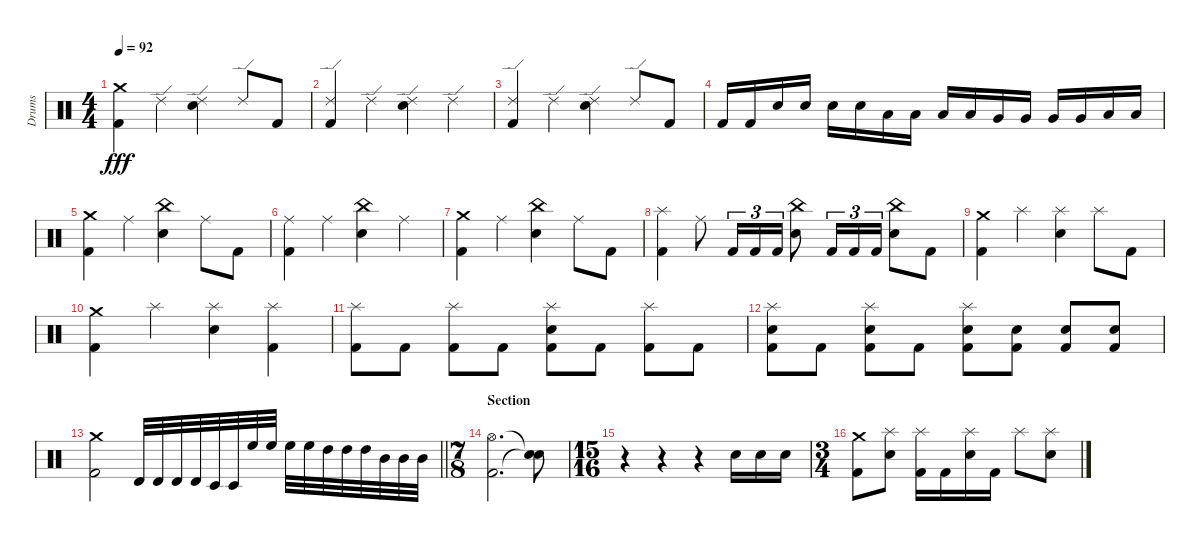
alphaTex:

\track ("Drums" "Drums") {instrument percussion}
\staff {score}
\articulation defaults
\ts (4 4)
\tempo 92
\clef neutral
\ks c
("Crash medium (hit)" "Kick (hit) 2").4{dy fff} "Ride (edge) 2".4 ("Ride (edge) 2" "Snare (hit) 2").4 "Ride (edge) 2".8 "Kick (hit) 2".8 |
("Ride (edge) 2" "Kick (hit) 2").4 "Ride (edge) 2".4 ("Ride (edge) 2" "Snare (hit) 2").4 "Ride (edge) 2".4 |
("Ride (edge) 2" "Kick (hit) 2").4 "Ride (edge) 2".4 ("Ride (edge) 2" "Snare (hit) 2").4 "Ride (edge) 2".8 "Kick (hit) 2".8 |
"Kick (hit) 2".16 "Kick (hit) 2".16 "Snare (hit) 2".16 "Snare (hit) 2".16 "Snare (hit) 2".16 "Snare (hit) 2".16 "Low Tom (hit)".16 "Low Tom (hit)".16 "Low Tom (hit)".16 "Low Tom (hit)".16 "Very Low Tom (hit)".16 "Very Low Tom (hit)".16 "Very Low Tom (hit)".16 "Very Low Tom (hit)".16 "Low Floor Tom (hit)".16 "Low Floor Tom (hit)".16 |
("Crash medium (hit)" "Kick (hit) 2").4 "Ride (middle)".4 ("China (hit)" "Snare (hit) 2").4 "Ride (middle)".8 "Kick (hit) 2".8 |
("Ride (middle)" "Kick (hit) 2").4 "Ride (middle)".4 ("China (hit)" "Snare (hit) 2").4 "Ride (middle)".4 |
("Crash medium (hit)" "Kick (hit) 2").4 "Ride (middle)".4 ("China (hit)" "Snare (hit) 2").4 "Ride (middle)".8 "Kick (hit) 2".8 |
("Splash (hit)" "Kick (hit) 2").4 "Ride (middle)".8 "Kick (hit) 2".16{tu (3 2)} "Kick (hit) 2".16{tu (3 2)} "Kick (hit) 2".16{tu (3 2)} ("China (hit)" "Snare (hit) 2").8 "Kick (hit) 2".16{tu (3 2)} "Kick (hit) 2".16{tu (3 2)} "Kick (hit) 2".16{tu (3 2)} ("China (hit)" "Snare (hit) 2").8 "Kick (hit) 2".8 |
("Crash medium (hit)" "Kick (hit) 2").4 "Splash (hit)".4 ("Splash (hit)" "Snare (hit) 2").4 "Splash (hit)".8 "Kick (hit) 2".8 |
("Crash medium (hit)" "Kick (hit) 2").4 "Splash (hit)".4 ("Splash (hit)" "Snare (hit) 2").4 ("Splash (hit)" "Kick (hit) 2").4 |
("Splash (hit)" "Kick (hit) 2").8 "Kick (hit) 2".8 ("Splash (hit)" "Kick (hit) 2").8 "Kick (hit) 2".8 ("Splash (hit)" "Snare (hit) 2" "Kick (hit) 2").8 "Kick (hit) 2".8 ("Splash (hit)" "Kick (hit) 2").8 "Kick (hit) 2".8 |
("Splash (hit)" "Snare (hit) 2" "Kick (hit) 2").8 "Kick (hit) 2".8 ("Splash (hit)" "Snare (hit) 2" "Kick (hit) 2").8 "Kick (hit) 2".8 ("Splash (hit)" "Snare (hit) 2" "Kick (hit) 2").8 ("Snare (hit) 2" "Kick (hit) 2").8 ("Snare (hit) 2" "Kick (hit) 2").8 ("Snare (hit) 2" "Kick (hit) 2").8 |
\barLineRight lightlight
("Crash medium (hit)" "Kick (hit) 2").2 "Timbale high (hit)".32 "Timbale high (hit)".32 "Timbale high (hit)".32 "Timbale high (hit)".32 "Timbale low (hit)".32 "Timbale low (hit)".32 "High Floor Tom (hit)".32 "High Floor Tom (hit)".32 "High Floor Tom (hit)".32 "High Floor Tom (hit)".32 "High Tom (hit)".32 "High Tom (hit)".32 "High Tom (hit)".32 "Mid Tom (hit)".32 "Mid Tom (hit)".32 "Mid Tom (hit)".32 |
\ts (7 8)
\section ("" "Section")
("Hi-Hat (open)" "Kick (hit) 2").2{d} ("Snare (hit)"{t} "Snare (hit)"{t}).8 |
\ts (15 16)
r.4 r.4 r.4 "Snare (hit) 2".16 "Snare (hit) 2".16 "Snare (hit) 2".16 |
\ts (3 4)
("Crash medium (hit)" "Kick (hit) 2").8 ("Splash (hit)" "Snare (hit) 2").8 ("Splash (hit)" "Kick (hit) 2").16 "Kick (hit) 2".16 ("Splash (hit)" "Snare (hit) 2").16 "Kick (hit) 2".16 "Splash (hit)".8 ("Splash (hit)" "Snare (hit) 2").8
